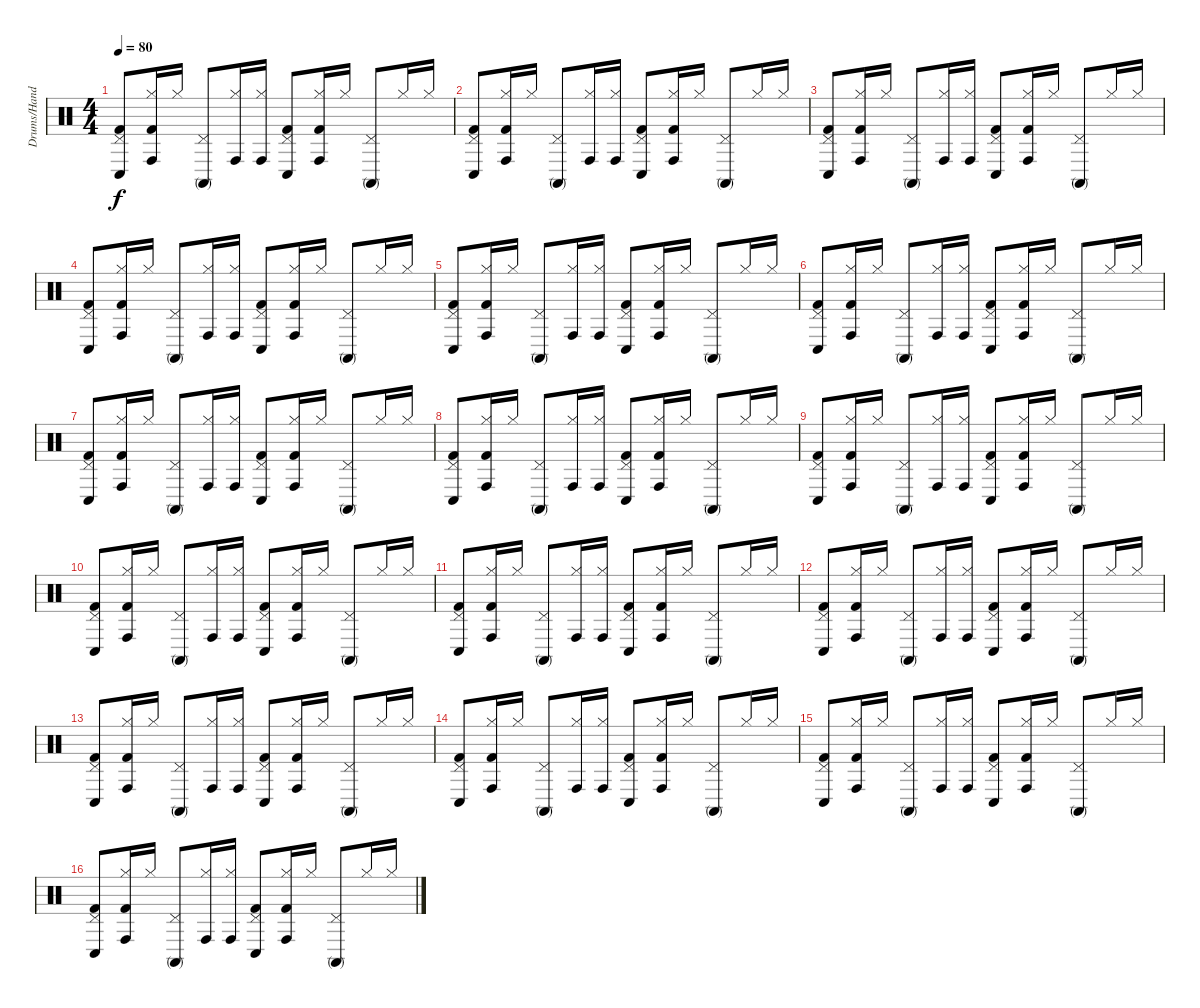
\track ("Drums/Hand percussion" "Drums/Hand") {instrument percussion}
\staff {score}
\articulation defaults
\ts (4 4)
\tempo 80
\clef neutral
\ks c
("Pedal Hi-Hat (hit)" "Conga low (hit)" "Kick (hit) 2").8{dy f} ("Hi-Hat (closed)" "Conga high (hit)" "Kick (hit) 2").16 "Hi-Hat (closed)".16 ("Pedal Hi-Hat (hit)" "Conga high (mute)").8 ("Hi-Hat (closed)" "Conga high (hit)").16 ("Hi-Hat (closed)" "Conga high (hit)").16 ("Pedal Hi-Hat (hit)" "Conga low (hit)" "Kick (hit) 2").8 ("Hi-Hat (closed)" "Conga high (hit)" "Kick (hit) 2").16 "Hi-Hat (closed)".16 ("Pedal Hi-Hat (hit)" "Conga high (mute)").8 "Hi-Hat (closed)".16 "Hi-Hat (closed)".16 |
("Pedal Hi-Hat (hit)" "Conga low (hit)" "Kick (hit) 2").8 ("Hi-Hat (closed)" "Conga high (hit)" "Kick (hit) 2").16 "Hi-Hat (closed)".16 ("Pedal Hi-Hat (hit)" "Conga high (mute)").8 ("Hi-Hat (closed)" "Conga high (hit)").16 ("Hi-Hat (closed)" "Conga high (hit)").16 ("Pedal Hi-Hat (hit)" "Conga low (hit)" "Kick (hit) 2").8 ("Hi-Hat (closed)" "Conga high (hit)" "Kick (hit) 2").16 "Hi-Hat (closed)".16 ("Pedal Hi-Hat (hit)" "Conga high (mute)").8 "Hi-Hat (closed)".16 "Hi-Hat (closed)".16 |
("Pedal Hi-Hat (hit)" "Conga low (hit)" "Kick (hit) 2").8 ("Hi-Hat (closed)" "Conga high (hit)" "Kick (hit) 2").16 "Hi-Hat (closed)".16 ("Pedal Hi-Hat (hit)" "Conga high (mute)").8 ("Hi-Hat (closed)" "Conga high (hit)").16 ("Hi-Hat (closed)" "Conga high (hit)").16 ("Pedal Hi-Hat (hit)" "Conga low (hit)" "Kick (hit) 2").8 ("Hi-Hat (closed)" "Conga high (hit)" "Kick (hit) 2").16 "Hi-Hat (closed)".16 ("Pedal Hi-Hat (hit)" "Conga high (mute)").8 "Hi-Hat (closed)".16 "Hi-Hat (closed)".16 |
("Pedal Hi-Hat (hit)" "Conga low (hit)" "Kick (hit) 2").8 ("Hi-Hat (closed)" "Conga high (hit)" "Kick (hit) 2").16 "Hi-Hat (closed)".16 ("Pedal Hi-Hat (hit)" "Conga high (mute)").8 ("Hi-Hat (closed)" "Conga high (hit)").16 ("Hi-Hat (closed)" "Conga high (hit)").16 ("Pedal Hi-Hat (hit)" "Conga low (hit)" "Kick (hit) 2").8 ("Hi-Hat (closed)" "Conga high (hit)" "Kick (hit) 2").16 "Hi-Hat (closed)".16 ("Pedal Hi-Hat (hit)" "Conga high (mute)").8 "Hi-Hat (closed)".16 "Hi-Hat (closed)".16 |
("Pedal Hi-Hat (hit)" "Conga low (hit)" "Kick (hit) 2").8 ("Hi-Hat (closed)" "Conga high (hit)" "Kick (hit) 2").16 "Hi-Hat (closed)".16 ("Pedal Hi-Hat (hit)" "Conga high (mute)").8 ("Hi-Hat (closed)" "Conga high (hit)").16 ("Hi-Hat (closed)" "Conga high (hit)").16 ("Pedal Hi-Hat (hit)" "Conga low (hit)" "Kick (hit) 2").8 ("Hi-Hat (closed)" "Conga high (hit)" "Kick (hit) 2").16 "Hi-Hat (closed)".16 ("Pedal Hi-Hat (hit)" "Conga high (mute)").8 "Hi-Hat (closed)".16 "Hi-Hat (closed)".16 |
("Pedal Hi-Hat (hit)" "Conga low (hit)" "Kick (hit) 2").8 ("Hi-Hat (closed)" "Conga high (hit)" "Kick (hit) 2").16 "Hi-Hat (closed)".16 ("Pedal Hi-Hat (hit)" "Conga high (mute)").8 ("Hi-Hat (closed)" "Conga high (hit)").16 ("Hi-Hat (closed)" "Conga high (hit)").16 ("Pedal Hi-Hat (hit)" "Conga low (hit)" "Kick (hit) 2").8 ("Hi-Hat (closed)" "Conga high (hit)" "Kick (hit) 2").16 "Hi-Hat (closed)".16 ("Pedal Hi-Hat (hit)" "Conga high (mute)").8 "Hi-Hat (closed)".16 "Hi-Hat (closed)".16 |
("Pedal Hi-Hat (hit)" "Conga low (hit)" "Kick (hit) 2").8 ("Hi-Hat (closed)" "Conga high (hit)" "Kick (hit) 2").16 "Hi-Hat (closed)".16 ("Pedal Hi-Hat (hit)" "Conga high (mute)").8 ("Hi-Hat (closed)" "Conga high (hit)").16 ("Hi-Hat (closed)" "Conga high (hit)").16 ("Pedal Hi-Hat (hit)" "Conga low (hit)" "Kick (hit) 2").8 ("Hi-Hat (closed)" "Conga high (hit)" "Kick (hit) 2").16 "Hi-Hat (closed)".16 ("Pedal Hi-Hat (hit)" "Conga high (mute)").8 "Hi-Hat (closed)".16 "Hi-Hat (closed)".16 |
("Pedal Hi-Hat (hit)" "Conga low (hit)" "Kick (hit) 2").8 ("Hi-Hat (closed)" "Conga high (hit)" "Kick (hit) 2").16 "Hi-Hat (closed)".16 ("Pedal Hi-Hat (hit)" "Conga high (mute)").8 ("Hi-Hat (closed)" "Conga high (hit)").16 ("Hi-Hat (closed)" "Conga high (hit)").16 ("Pedal Hi-Hat (hit)" "Conga low (hit)" "Kick (hit) 2").8 ("Hi-Hat (closed)" "Conga high (hit)" "Kick (hit) 2").16 "Hi-Hat (closed)".16 ("Pedal Hi-Hat (hit)" "Conga high (mute)").8 "Hi-Hat (closed)".16 "Hi-Hat (closed)".16 |
("Pedal Hi-Hat (hit)" "Conga low (hit)" "Kick (hit) 2").8 ("Hi-Hat (closed)" "Conga high (hit)" "Kick (hit) 2").16 "Hi-Hat (closed)".16 ("Pedal Hi-Hat (hit)" "Conga high (mute)").8 ("Hi-Hat (closed)" "Conga high (hit)").16 ("Hi-Hat (closed)" "Conga high (hit)").16 ("Pedal Hi-Hat (hit)" "Conga low (hit)" "Kick (hit) 2").8 ("Hi-Hat (closed)" "Conga high (hit)" "Kick (hit) 2").16 "Hi-Hat (closed)".16 ("Pedal Hi-Hat (hit)" "Conga high (mute)").8 "Hi-Hat (closed)".16 "Hi-Hat (closed)".16 |
("Pedal Hi-Hat (hit)" "Conga low (hit)" "Kick (hit) 2").8 ("Hi-Hat (closed)" "Conga high (hit)" "Kick (hit) 2").16 "Hi-Hat (closed)".16 ("Pedal Hi-Hat (hit)" "Conga high (mute)").8 ("Hi-Hat (closed)" "Conga high (hit)").16 ("Hi-Hat (closed)" "Conga high (hit)").16 ("Pedal Hi-Hat (hit)" "Conga low (hit)" "Kick (hit) 2").8 ("Hi-Hat (closed)" "Conga high (hit)" "Kick (hit) 2").16 "Hi-Hat (closed)".16 ("Pedal Hi-Hat (hit)" "Conga high (mute)").8 "Hi-Hat (closed)".16 "Hi-Hat (closed)".16 |
("Pedal Hi-Hat (hit)" "Conga low (hit)" "Kick (hit) 2").8 ("Hi-Hat (closed)" "Conga high (hit)" "Kick (hit) 2").16 "Hi-Hat (closed)".16 ("Pedal Hi-Hat (hit)" "Conga high (mute)").8 ("Hi-Hat (closed)" "Conga high (hit)").16 ("Hi-Hat (closed)" "Conga high (hit)").16 ("Pedal Hi-Hat (hit)" "Conga low (hit)" "Kick (hit) 2").8 ("Hi-Hat (closed)" "Conga high (hit)" "Kick (hit) 2").16 "Hi-Hat (closed)".16 ("Pedal Hi-Hat (hit)" "Conga high (mute)").8 "Hi-Hat (closed)".16 "Hi-Hat (closed)".16 |
("Pedal Hi-Hat (hit)" "Conga low (hit)" "Kick (hit) 2").8 ("Hi-Hat (closed)" "Conga high (hit)" "Kick (hit) 2").16 "Hi-Hat (closed)".16 ("Pedal Hi-Hat (hit)" "Conga high (mute)").8 ("Hi-Hat (closed)" "Conga high (hit)").16 ("Hi-Hat (closed)" "Conga high (hit)").16 ("Pedal Hi-Hat (hit)" "Conga low (hit)" "Kick (hit) 2").8 ("Hi-Hat (closed)" "Conga high (hit)" "Kick (hit) 2").16 "Hi-Hat (closed)".16 ("Pedal Hi-Hat (hit)" "Conga high (mute)").8 "Hi-Hat (closed)".16 "Hi-Hat (closed)".16 |
("Pedal Hi-Hat (hit)" "Conga low (hit)" "Kick (hit) 2").8 ("Hi-Hat (closed)" "Conga high (hit)" "Kick (hit) 2").16 "Hi-Hat (closed)".16 ("Pedal Hi-Hat (hit)" "Conga high (mute)").8 ("Hi-Hat (closed)" "Conga high (hit)").16 ("Hi-Hat (closed)" "Conga high (hit)").16 ("Pedal Hi-Hat (hit)" "Conga low (hit)" "Kick (hit) 2").8 ("Hi-Hat (closed)" "Conga high (hit)" "Kick (hit) 2").16 "Hi-Hat (closed)".16 ("Pedal Hi-Hat (hit)" "Conga high (mute)").8 "Hi-Hat (closed)".16 "Hi-Hat (closed)".16 |
("Pedal Hi-Hat (hit)" "Conga low (hit)" "Kick (hit) 2").8 ("Hi-Hat (closed)" "Conga high (hit)" "Kick (hit) 2").16 "Hi-Hat (closed)".16 ("Pedal Hi-Hat (hit)" "Conga high (mute)").8 ("Hi-Hat (closed)" "Conga high (hit)").16 ("Hi-Hat (closed)" "Conga high (hit)").16 ("Pedal Hi-Hat (hit)" "Conga low (hit)" "Kick (hit) 2").8 ("Hi-Hat (closed)" "Conga high (hit)" "Kick (hit) 2").16 "Hi-Hat (closed)".16 ("Pedal Hi-Hat (hit)" "Conga high (mute)").8 "Hi-Hat (closed)".16 "Hi-Hat (closed)".16 |
("Pedal Hi-Hat (hit)" "Conga low (hit)" "Kick (hit) 2").8 ("Hi-Hat (closed)" "Conga high (hit)" "Kick (hit) 2").16 "Hi-Hat (closed)".16 ("Pedal Hi-Hat (hit)" "Conga high (mute)").8 ("Hi-Hat (closed)" "Conga high (hit)").16 ("Hi-Hat (closed)" "Conga high (hit)").16 ("Pedal Hi-Hat (hit)" "Conga low (hit)" "Kick (hit) 2").8 ("Hi-Hat (closed)" "Conga high (hit)" "Kick (hit) 2").16 "Hi-Hat (closed)".16 ("Pedal Hi-Hat (hit)" "Conga high (mute)").8 "Hi-Hat (closed)".16 "Hi-Hat (closed)".16 |
("Pedal Hi-Hat (hit)" "Conga low (hit)" "Kick (hit) 2").8 ("Hi-Hat (closed)" "Conga high (hit)" "Kick (hit) 2").16 "Hi-Hat (closed)".16 ("Pedal Hi-Hat (hit)" "Conga high (mute)").8 ("Hi-Hat (closed)" "Conga high (hit)").16 ("Hi-Hat (closed)" "Conga high (hit)").16 ("Pedal Hi-Hat (hit)" "Conga low (hit)" "Kick (hit) 2").8 ("Hi-Hat (closed)" "Conga high (hit)" "Kick (hit) 2").16 "Hi-Hat (closed)".16 ("Pedal Hi-Hat (hit)" "Conga high (mute)").8 "Hi-Hat (closed)".16 "Hi-Hat (closed)".16
